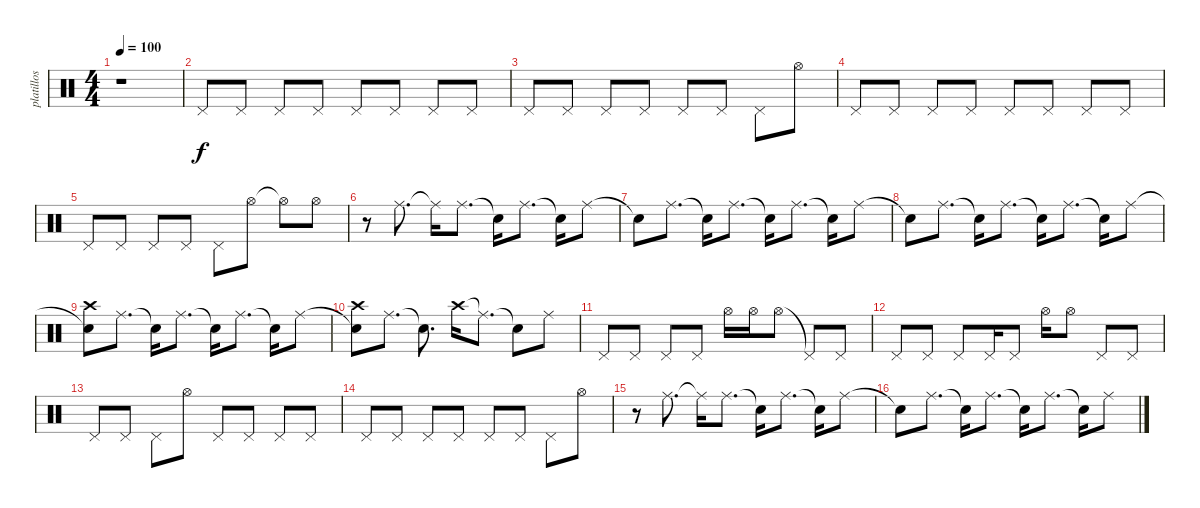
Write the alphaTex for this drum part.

\track ("platillos" "platillos") {instrument percussion}
\staff {score}
\articulation defaults
\ts (4 4)
\tempo 100
\clef neutral
\ks c
r.1{dy f} |
"Pedal Hi-Hat (hit)".8 "Pedal Hi-Hat (hit)".8 "Pedal Hi-Hat (hit)".8 "Pedal Hi-Hat (hit)".8 "Pedal Hi-Hat (hit)".8 "Pedal Hi-Hat (hit)".8 "Pedal Hi-Hat (hit)".8 "Pedal Hi-Hat (hit)".8 |
"Pedal Hi-Hat (hit)".8 "Pedal Hi-Hat (hit)".8 "Pedal Hi-Hat (hit)".8 "Pedal Hi-Hat (hit)".8 "Pedal Hi-Hat (hit)".8 "Pedal Hi-Hat (hit)".8 "Pedal Hi-Hat (hit)".8 "Hi-Hat (open)".8 |
"Pedal Hi-Hat (hit)".8 "Pedal Hi-Hat (hit)".8 "Pedal Hi-Hat (hit)".8 "Pedal Hi-Hat (hit)".8 "Pedal Hi-Hat (hit)".8 "Pedal Hi-Hat (hit)".8 "Pedal Hi-Hat (hit)".8 "Pedal Hi-Hat (hit)".8 |
"Pedal Hi-Hat (hit)".8 "Pedal Hi-Hat (hit)".8 "Pedal Hi-Hat (hit)".8 "Pedal Hi-Hat (hit)".8 "Pedal Hi-Hat (hit)".8 "Hi-Hat (open)".8 "Hi-Hat (open)"{t}.8 "Hi-Hat (open)".8 |
r.8 "Ride (middle)".8{d} "Ride (middle)"{t}.16 "Ride (middle)".8{d} "Snare (hit)"{t}.16 "Ride (middle)".8{d} "Snare (hit)"{t}.16 "Ride (middle)".8 |
"Snare (hit)"{t}.8 "Ride (middle)".8{d} "Snare (hit)"{t}.16 "Ride (middle)".8{d} "Snare (hit)"{t}.16 "Ride (middle)".8{d} "Snare (hit)"{t}.16 "Ride (middle)".8 |
"Snare (hit)"{t}.8 "Ride (middle)".8{d} "Snare (hit)"{t}.16 "Ride (middle)".8{d} "Snare (hit)"{t}.16 "Ride (middle)".8{d} "Snare (hit)"{t}.16 "Ride (middle)".8 |
("Snare (hit)"{t} "Crash high (hit)").8 "Ride (middle)".8{d} "Snare (hit)"{t}.16 "Ride (middle)".8{d} "Snare (hit)"{t}.16 "Ride (middle)".8{d} "Snare (hit)"{t}.16 "Ride (middle)".8 |
("Snare (hit)"{t} "Crash high (hit)").8 "Ride (middle)".8{d} "Snare (hit)"{t}.8{d} "Crash high (hit)".16 "Ride (middle)"{t}.8{d} "Snare (hit)"{t}.8 "Ride (middle)".8 |
"Pedal Hi-Hat (hit)".8 "Pedal Hi-Hat (hit)".8 "Pedal Hi-Hat (hit)".8 "Pedal Hi-Hat (hit)".8 "Hi-Hat (open)".16 "Hi-Hat (open)".16 "Hi-Hat (open)".8 "Pedal Hi-Hat (hit)"{t}.8 "Pedal Hi-Hat (hit)".8 |
"Pedal Hi-Hat (hit)".8 "Pedal Hi-Hat (hit)".8 "Pedal Hi-Hat (hit)".8 "Pedal Hi-Hat (hit)".16 "Pedal Hi-Hat (hit)".8 "Hi-Hat (open)".16 "Hi-Hat (open)".8 "Pedal Hi-Hat (hit)".8 "Pedal Hi-Hat (hit)".8 |
"Pedal Hi-Hat (hit)".8 "Pedal Hi-Hat (hit)".8 "Pedal Hi-Hat (hit)".8 "Hi-Hat (open)".8 "Pedal Hi-Hat (hit)".8 "Pedal Hi-Hat (hit)".8 "Pedal Hi-Hat (hit)".8 "Pedal Hi-Hat (hit)".8 |
"Pedal Hi-Hat (hit)".8 "Pedal Hi-Hat (hit)".8 "Pedal Hi-Hat (hit)".8 "Pedal Hi-Hat (hit)".8 "Pedal Hi-Hat (hit)".8 "Pedal Hi-Hat (hit)".8 "Pedal Hi-Hat (hit)".8 "Hi-Hat (open)".8 |
r.8 "Ride (middle)".8{d} "Ride (middle)"{t}.16 "Ride (middle)".8{d} "Snare (hit)"{t}.16 "Ride (middle)".8{d} "Snare (hit)"{t}.16 "Ride (middle)".8 |
"Snare (hit)"{t}.8 "Ride (middle)".8{d} "Snare (hit)"{t}.16 "Ride (middle)".8{d} "Snare (hit)"{t}.16 "Ride (middle)".8{d} "Snare (hit)"{t}.16 "Ride (middle)".8
